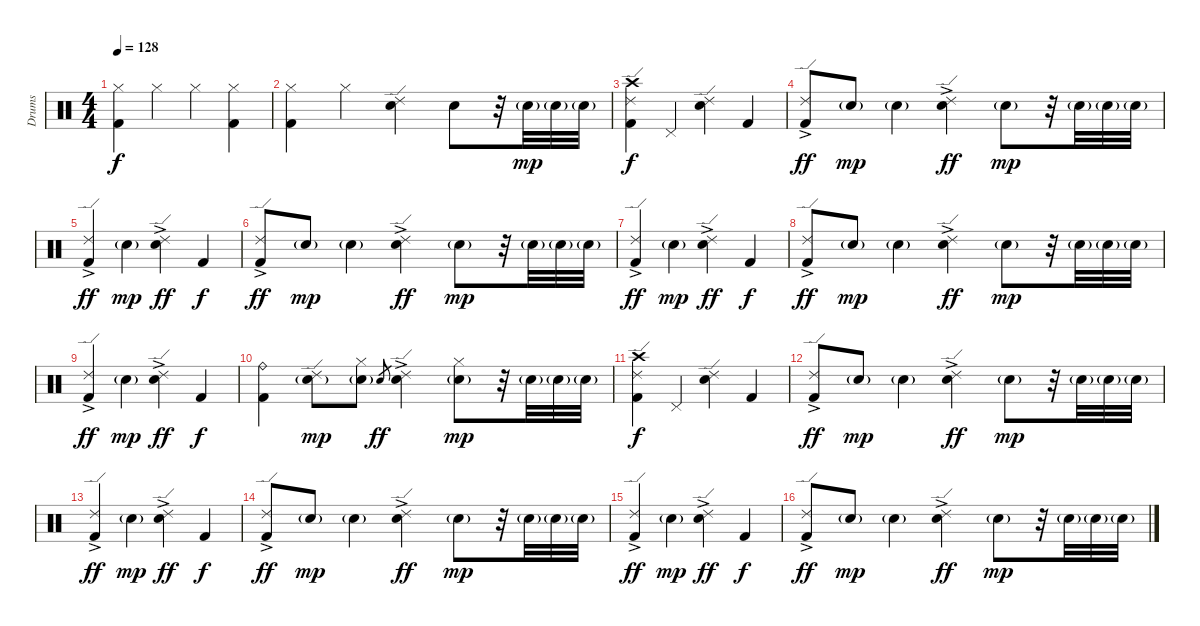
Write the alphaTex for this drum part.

\track ("Drums" "Drums") {instrument percussion}
\staff {score}
\articulation defaults
\ts (4 4)
\tempo 128
\clef neutral
\ks c
("Kick (hit) 2" "Hi-Hat (closed)").4{dy f} "Hi-Hat (closed)".4 "Hi-Hat (closed)".4 ("Kick (hit) 2" "Hi-Hat (closed)").4 |
("Kick (hit) 2" "Hi-Hat (closed)").4 "Hi-Hat (closed)".4 ("Snare (hit) 2" "Ride (edge) 2").4 "Snare (hit) 2".8 r.32 "Snare (hit) 2"{g}.32{dy mp} "Snare (hit) 2"{g}.32 "Snare (hit) 2"{g}.32 |
("Crash high (hit)" "Kick (hit) 2" "Ride (edge) 2").4{dy f} "Pedal Hi-Hat (hit)".4 ("Snare (hit) 2" "Ride (edge) 2").4 "Kick (hit) 2".4 |
("Kick (hit) 2" "Ride (edge) 2"{ac}).8{dy ff} "Snare (hit) 2"{g}.8{dy mp} "Snare (hit) 2"{g}.4 ("Snare (hit) 2"{ac} "Ride (edge) 2").4{dy ff} "Snare (hit) 2"{g}.8{dy mp} r.32 "Snare (hit) 2"{g}.32 "Snare (hit) 2"{g}.32 "Snare (hit) 2"{g}.32 |
("Kick (hit) 2"{ac} "Ride (edge) 2").4{dy ff} "Snare (hit) 2"{g}.4{dy mp} ("Snare (hit) 2"{ac} "Ride (edge) 2").4{dy ff} "Kick (hit) 2".4{dy f} |
("Kick (hit) 2" "Ride (edge) 2"{ac}).8{dy ff} "Snare (hit) 2"{g}.8{dy mp} "Snare (hit) 2"{g}.4 ("Snare (hit) 2"{ac} "Ride (edge) 2").4{dy ff} "Snare (hit) 2"{g}.8{dy mp} r.32 "Snare (hit) 2"{g}.32 "Snare (hit) 2"{g}.32 "Snare (hit) 2"{g}.32 |
("Kick (hit) 2"{ac} "Ride (edge) 2").4{dy ff} "Snare (hit) 2"{g}.4{dy mp} ("Snare (hit) 2"{ac} "Ride (edge) 2").4{dy ff} "Kick (hit) 2".4{dy f} |
("Kick (hit) 2" "Ride (edge) 2"{ac}).8{dy ff} "Snare (hit) 2"{g}.8{dy mp} "Snare (hit) 2"{g}.4 ("Snare (hit) 2"{ac} "Ride (edge) 2").4{dy ff} "Snare (hit) 2"{g}.8{dy mp} r.32 "Snare (hit) 2"{g}.32 "Snare (hit) 2"{g}.32 "Snare (hit) 2"{g}.32 |
("Kick (hit) 2"{ac} "Ride (edge) 2").4{dy ff} "Snare (hit) 2"{g}.4{dy mp} ("Snare (hit) 2"{ac} "Ride (edge) 2").4{dy ff} "Kick (hit) 2".4{dy f} |
("Ride (bell)" "Kick (hit) 2").4 ("Snare (hit) 2"{g} "Ride (edge) 2").8{dy mp} ("Snare (hit) 2"{g} "Hi-Hat (closed)").8 "Snare (hit) 2".8{gr dy ff} ("Snare (hit) 2"{ac} "Ride (edge) 2").4 ("Snare (hit) 2"{g} "Hi-Hat (closed)").8{dy mp} r.32 "Snare (hit) 2"{g}.32 "Snare (hit) 2"{g}.32 "Snare (hit) 2"{g}.32 |
("Crash high (hit)" "Kick (hit) 2" "Ride (edge) 2").4{dy f} "Pedal Hi-Hat (hit)".4 ("Snare (hit) 2" "Ride (edge) 2").4 "Kick (hit) 2".4 |
("Kick (hit) 2" "Ride (edge) 2"{ac}).8{dy ff} "Snare (hit) 2"{g}.8{dy mp} "Snare (hit) 2"{g}.4 ("Snare (hit) 2"{ac} "Ride (edge) 2").4{dy ff} "Snare (hit) 2"{g}.8{dy mp} r.32 "Snare (hit) 2"{g}.32 "Snare (hit) 2"{g}.32 "Snare (hit) 2"{g}.32 |
("Kick (hit) 2"{ac} "Ride (edge) 2").4{dy ff} "Snare (hit) 2"{g}.4{dy mp} ("Snare (hit) 2"{ac} "Ride (edge) 2").4{dy ff} "Kick (hit) 2".4{dy f} |
("Kick (hit) 2" "Ride (edge) 2"{ac}).8{dy ff} "Snare (hit) 2"{g}.8{dy mp} "Snare (hit) 2"{g}.4 ("Snare (hit) 2"{ac} "Ride (edge) 2").4{dy ff} "Snare (hit) 2"{g}.8{dy mp} r.32 "Snare (hit) 2"{g}.32 "Snare (hit) 2"{g}.32 "Snare (hit) 2"{g}.32 |
("Kick (hit) 2"{ac} "Ride (edge) 2").4{dy ff} "Snare (hit) 2"{g}.4{dy mp} ("Snare (hit) 2"{ac} "Ride (edge) 2").4{dy ff} "Kick (hit) 2".4{dy f} |
("Kick (hit) 2" "Ride (edge) 2"{ac}).8{dy ff} "Snare (hit) 2"{g}.8{dy mp} "Snare (hit) 2"{g}.4 ("Snare (hit) 2"{ac} "Ride (edge) 2").4{dy ff} "Snare (hit) 2"{g}.8{dy mp} r.32 "Snare (hit) 2"{g}.32 "Snare (hit) 2"{g}.32 "Snare (hit) 2"{g}.32
